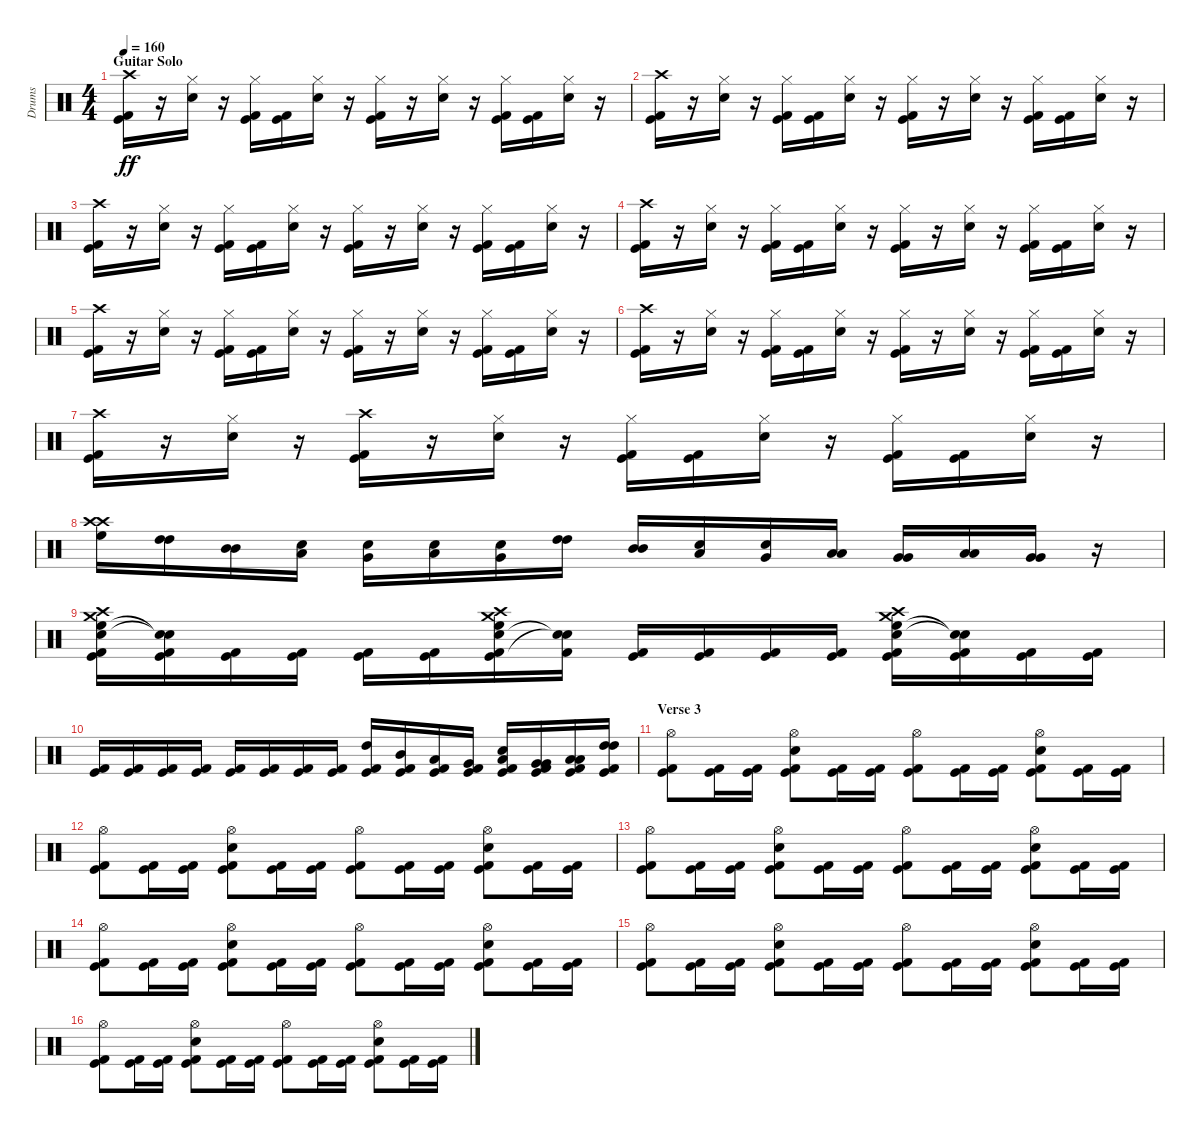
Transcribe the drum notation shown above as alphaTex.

\track ("Drums" "Drums") {instrument percussion}
\staff {score}
\articulation defaults
\ts (4 4)
\section ("" "Guitar Solo")
\tempo 160
\clef neutral
\ks c
("Kick (hit) 2" "Kick (hit)" "Crash high (hit)").16{dy ff} r.16 ("Electric Snare (hit)" "Hi-Hat (closed)").16 r.16 ("Kick (hit) 2" "Kick (hit)" "Hi-Hat (closed)").16 ("Kick (hit) 2" "Kick (hit)").16 ("Electric Snare (hit)" "Hi-Hat (closed)").16 r.16 ("Kick (hit) 2" "Kick (hit)" "Hi-Hat (closed)").16 r.16 ("Electric Snare (hit)" "Hi-Hat (closed)").16 r.16 ("Kick (hit) 2" "Kick (hit)" "Hi-Hat (closed)").16 ("Kick (hit) 2" "Kick (hit)").16 ("Electric Snare (hit)" "Hi-Hat (closed)").16 r.16 |
("Kick (hit) 2" "Kick (hit)" "Crash high (hit)").16 r.16 ("Electric Snare (hit)" "Hi-Hat (closed)").16 r.16 ("Kick (hit) 2" "Kick (hit)" "Hi-Hat (closed)").16 ("Kick (hit) 2" "Kick (hit)").16 ("Electric Snare (hit)" "Hi-Hat (closed)").16 r.16 ("Kick (hit) 2" "Kick (hit)" "Hi-Hat (closed)").16 r.16 ("Electric Snare (hit)" "Hi-Hat (closed)").16 r.16 ("Kick (hit) 2" "Kick (hit)" "Hi-Hat (closed)").16 ("Kick (hit) 2" "Kick (hit)").16 ("Electric Snare (hit)" "Hi-Hat (closed)").16 r.16 |
("Kick (hit) 2" "Kick (hit)" "Crash high (hit)").16 r.16 ("Electric Snare (hit)" "Hi-Hat (closed)").16 r.16 ("Kick (hit) 2" "Kick (hit)" "Hi-Hat (closed)").16 ("Kick (hit) 2" "Kick (hit)").16 ("Electric Snare (hit)" "Hi-Hat (closed)").16 r.16 ("Kick (hit) 2" "Kick (hit)" "Hi-Hat (closed)").16 r.16 ("Electric Snare (hit)" "Hi-Hat (closed)").16 r.16 ("Kick (hit) 2" "Kick (hit)" "Hi-Hat (closed)").16 ("Kick (hit) 2" "Kick (hit)").16 ("Electric Snare (hit)" "Hi-Hat (closed)").16 r.16 |
("Kick (hit) 2" "Kick (hit)" "Crash high (hit)").16 r.16 ("Electric Snare (hit)" "Hi-Hat (closed)").16 r.16 ("Kick (hit) 2" "Kick (hit)" "Hi-Hat (closed)").16 ("Kick (hit) 2" "Kick (hit)").16 ("Electric Snare (hit)" "Hi-Hat (closed)").16 r.16 ("Kick (hit) 2" "Kick (hit)" "Hi-Hat (closed)").16 r.16 ("Electric Snare (hit)" "Hi-Hat (closed)").16 r.16 ("Kick (hit) 2" "Kick (hit)" "Hi-Hat (closed)").16 ("Kick (hit) 2" "Kick (hit)").16 ("Electric Snare (hit)" "Hi-Hat (closed)").16 r.16 |
("Kick (hit) 2" "Kick (hit)" "Crash high (hit)").16 r.16 ("Electric Snare (hit)" "Hi-Hat (closed)").16 r.16 ("Kick (hit) 2" "Kick (hit)" "Hi-Hat (closed)").16 ("Kick (hit) 2" "Kick (hit)").16 ("Electric Snare (hit)" "Hi-Hat (closed)").16 r.16 ("Kick (hit) 2" "Kick (hit)" "Hi-Hat (closed)").16 r.16 ("Electric Snare (hit)" "Hi-Hat (closed)").16 r.16 ("Kick (hit) 2" "Kick (hit)" "Hi-Hat (closed)").16 ("Kick (hit) 2" "Kick (hit)").16 ("Electric Snare (hit)" "Hi-Hat (closed)").16 r.16 |
("Kick (hit) 2" "Kick (hit)" "Crash high (hit)").16 r.16 ("Electric Snare (hit)" "Hi-Hat (closed)").16 r.16 ("Kick (hit) 2" "Kick (hit)" "Hi-Hat (closed)").16 ("Kick (hit) 2" "Kick (hit)").16 ("Electric Snare (hit)" "Hi-Hat (closed)").16 r.16 ("Kick (hit) 2" "Kick (hit)" "Hi-Hat (closed)").16 r.16 ("Electric Snare (hit)" "Hi-Hat (closed)").16 r.16 ("Kick (hit) 2" "Kick (hit)" "Hi-Hat (closed)").16 ("Kick (hit) 2" "Kick (hit)").16 ("Electric Snare (hit)" "Hi-Hat (closed)").16 r.16 |
("Kick (hit) 2" "Kick (hit)" "Crash high (hit)").16 r.16 ("Electric Snare (hit)" "Hi-Hat (closed)").16 r.16 ("Kick (hit) 2" "Kick (hit)" "Crash high (hit)").16 r.16 ("Electric Snare (hit)" "Hi-Hat (closed)").16 r.16 ("Kick (hit) 2" "Kick (hit)" "Hi-Hat (closed)").16 ("Kick (hit) 2" "Kick (hit)").16 ("Electric Snare (hit)" "Hi-Hat (closed)").16 r.16 ("Kick (hit) 2" "Kick (hit)" "Hi-Hat (closed)").16 ("Kick (hit) 2" "Kick (hit)").16 ("Electric Snare (hit)" "Hi-Hat (closed)").16 r.16 |
("Crash high (hit)" "Crash high (hit)" "High Floor Tom (hit)").16 ("High Tom (hit)" "High Tom (hit)").16 ("Mid Tom (hit)" "Mid Tom (hit)").16 ("Low Tom (hit)" "Snare (hit)").16 ("Very Low Tom (hit)" "Snare (hit)").16 ("Low Tom (hit)" "Snare (hit)").16 ("Very Low Tom (hit)" "Snare (hit)").16 ("High Tom (hit)" "High Tom (hit)").16 ("Mid Tom (hit)" "Mid Tom (hit)").16 ("Low Tom (hit)" "Snare (hit)").16 ("Very Low Tom (hit)" "Snare (hit)").16 ("Low Tom (hit)" "Low Tom (hit)").16 ("Very Low Tom (hit)" "Very Low Tom (hit)").16 ("Low Tom (hit)" "Low Tom (hit)").16 ("Very Low Tom (hit)" "Very Low Tom (hit)").16 r.16 |
("Kick (hit) 2" "Kick (hit)" "Snare (hit) 2" "High Floor Tom (hit)" "Crash high (hit)" "Crash medium (hit)").16 ("Kick (hit) 2" "Kick (hit)" "Snare (hit)"{t} "Snare (hit)"{t}).16 ("Kick (hit) 2" "Kick (hit)").16 ("Kick (hit) 2" "Kick (hit)").16 ("Kick (hit) 2" "Kick (hit)").16 ("Kick (hit) 2" "Kick (hit)").16 ("Kick (hit) 2" "Kick (hit)" "Snare (hit) 2" "High Floor Tom (hit)" "Crash high (hit)" "Crash medium (hit)").16 ("Kick (hit) 2" "Snare (hit)"{t} "Snare (hit)"{t}).16 ("Kick (hit) 2" "Kick (hit)").16 ("Kick (hit) 2" "Kick (hit)").16 ("Kick (hit) 2" "Kick (hit)").16 ("Kick (hit) 2" "Kick (hit)").16 ("Kick (hit) 2" "Kick (hit)" "Snare (hit) 2" "High Floor Tom (hit)" "Crash high (hit)" "Crash medium (hit)").16 ("Kick (hit) 2" "Kick (hit)" "Snare (hit)"{t} "Snare (hit)"{t}).16 ("Kick (hit) 2" "Kick (hit)").16 ("Kick (hit) 2" "Kick (hit)").16 |
("Kick (hit) 2" "Kick (hit)").16 ("Kick (hit) 2" "Kick (hit)").16 ("Kick (hit) 2" "Kick (hit)").16 ("Kick (hit) 2" "Kick (hit)").16 ("Kick (hit) 2" "Kick (hit)").16 ("Kick (hit) 2" "Kick (hit)").16 ("Kick (hit) 2" "Kick (hit)").16 ("Kick (hit) 2" "Kick (hit)").16 ("Kick (hit) 2" "Kick (hit)" "High Tom (hit)").16 ("Kick (hit) 2" "Kick (hit)" "Mid Tom (hit)").16 ("Kick (hit) 2" "Kick (hit)" "Low Tom (hit)").16 ("Kick (hit) 2" "Kick (hit)" "Very Low Tom (hit)").16 ("Kick (hit) 2" "Kick (hit)" "Low Tom (hit)" "Snare (hit)").16 ("Kick (hit) 2" "Kick (hit)" "Very Low Tom (hit)" "Very Low Tom (hit)").16 ("Kick (hit) 2" "Kick (hit)" "Low Floor Tom (hit)" "Low Floor Tom (hit)").16 ("Kick (hit) 2" "Kick (hit)" "High Tom (hit)" "High Tom (hit)").16 |
\section ("" "Verse 3")
("Kick (hit) 2" "Kick (hit)" "Hi-Hat (open)").8 ("Kick (hit) 2" "Kick (hit)").16 ("Kick (hit) 2" "Kick (hit)").16 ("Kick (hit) 2" "Kick (hit)" "Snare (hit) 2" "Hi-Hat (open)").8 ("Kick (hit) 2" "Kick (hit)").16 ("Kick (hit) 2" "Kick (hit)").16 ("Kick (hit) 2" "Kick (hit)" "Hi-Hat (open)").8 ("Kick (hit) 2" "Kick (hit)").16 ("Kick (hit) 2" "Kick (hit)").16 ("Kick (hit) 2" "Kick (hit)" "Snare (hit) 2" "Hi-Hat (open)").8 ("Kick (hit) 2" "Kick (hit)").16 ("Kick (hit) 2" "Kick (hit)").16 |
("Kick (hit) 2" "Kick (hit)" "Hi-Hat (open)").8 ("Kick (hit) 2" "Kick (hit)").16 ("Kick (hit) 2" "Kick (hit)").16 ("Kick (hit) 2" "Kick (hit)" "Snare (hit) 2" "Hi-Hat (open)").8 ("Kick (hit) 2" "Kick (hit)").16 ("Kick (hit) 2" "Kick (hit)").16 ("Kick (hit) 2" "Kick (hit)" "Hi-Hat (open)").8 ("Kick (hit) 2" "Kick (hit)").16 ("Kick (hit) 2" "Kick (hit)").16 ("Kick (hit) 2" "Kick (hit)" "Snare (hit) 2" "Hi-Hat (open)").8 ("Kick (hit) 2" "Kick (hit)").16 ("Kick (hit) 2" "Kick (hit)").16 |
("Kick (hit) 2" "Kick (hit)" "Hi-Hat (open)").8 ("Kick (hit) 2" "Kick (hit)").16 ("Kick (hit) 2" "Kick (hit)").16 ("Kick (hit) 2" "Kick (hit)" "Snare (hit) 2" "Hi-Hat (open)").8 ("Kick (hit) 2" "Kick (hit)").16 ("Kick (hit) 2" "Kick (hit)").16 ("Kick (hit) 2" "Kick (hit)" "Hi-Hat (open)").8 ("Kick (hit) 2" "Kick (hit)").16 ("Kick (hit) 2" "Kick (hit)").16 ("Kick (hit) 2" "Kick (hit)" "Snare (hit) 2" "Hi-Hat (open)").8 ("Kick (hit) 2" "Kick (hit)").16 ("Kick (hit) 2" "Kick (hit)").16 |
("Kick (hit) 2" "Kick (hit)" "Hi-Hat (open)").8 ("Kick (hit) 2" "Kick (hit)").16 ("Kick (hit) 2" "Kick (hit)").16 ("Kick (hit) 2" "Kick (hit)" "Snare (hit) 2" "Hi-Hat (open)").8 ("Kick (hit) 2" "Kick (hit)").16 ("Kick (hit) 2" "Kick (hit)").16 ("Kick (hit) 2" "Kick (hit)" "Hi-Hat (open)").8 ("Kick (hit) 2" "Kick (hit)").16 ("Kick (hit) 2" "Kick (hit)").16 ("Kick (hit) 2" "Kick (hit)" "Snare (hit) 2" "Hi-Hat (open)").8 ("Kick (hit) 2" "Kick (hit)").16 ("Kick (hit) 2" "Kick (hit)").16 |
("Kick (hit) 2" "Kick (hit)" "Hi-Hat (open)").8 ("Kick (hit) 2" "Kick (hit)").16 ("Kick (hit) 2" "Kick (hit)").16 ("Kick (hit) 2" "Kick (hit)" "Snare (hit) 2" "Hi-Hat (open)").8 ("Kick (hit) 2" "Kick (hit)").16 ("Kick (hit) 2" "Kick (hit)").16 ("Kick (hit) 2" "Kick (hit)" "Hi-Hat (open)").8 ("Kick (hit) 2" "Kick (hit)").16 ("Kick (hit) 2" "Kick (hit)").16 ("Kick (hit) 2" "Kick (hit)" "Snare (hit) 2" "Hi-Hat (open)").8 ("Kick (hit) 2" "Kick (hit)").16 ("Kick (hit) 2" "Kick (hit)").16 |
("Kick (hit) 2" "Kick (hit)" "Hi-Hat (open)").8 ("Kick (hit) 2" "Kick (hit)").16 ("Kick (hit) 2" "Kick (hit)").16 ("Kick (hit) 2" "Kick (hit)" "Snare (hit) 2" "Hi-Hat (open)").8 ("Kick (hit) 2" "Kick (hit)").16 ("Kick (hit) 2" "Kick (hit)").16 ("Kick (hit) 2" "Kick (hit)" "Hi-Hat (open)").8 ("Kick (hit) 2" "Kick (hit)").16 ("Kick (hit) 2" "Kick (hit)").16 ("Kick (hit) 2" "Kick (hit)" "Snare (hit) 2" "Hi-Hat (open)").8 ("Kick (hit) 2" "Kick (hit)").16 ("Kick (hit) 2" "Kick (hit)").16
